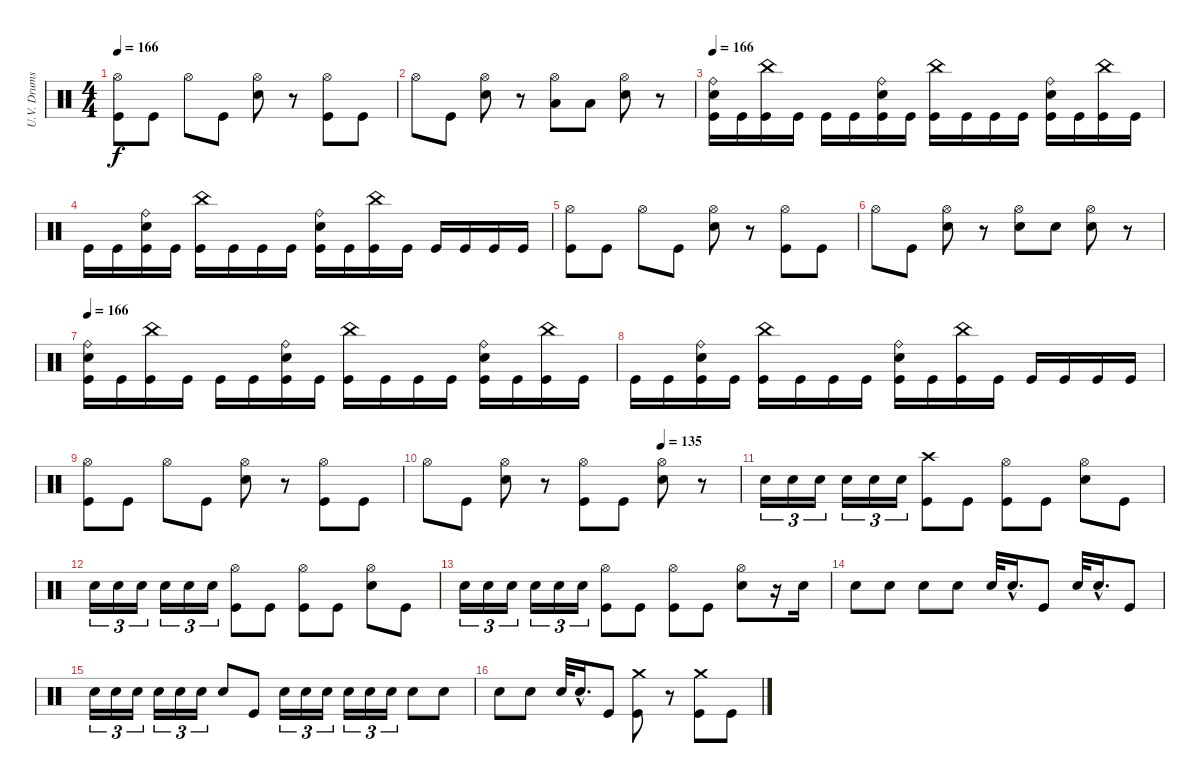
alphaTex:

\track ("U.V. Drums" "U.V. Drums") {instrument percussion}
\staff {score}
\articulation defaults
\ts (4 4)
\tempo 166
\clef neutral
\ks c
("Hi-Hat (open)" "Kick (hit)").8{dy f} "Kick (hit)".8 "Hi-Hat (open)".8 "Kick (hit)".8 ("Hi-Hat (open)" "Electric Snare (hit)").8 r.8 ("Hi-Hat (open)" "Kick (hit)").8 "Kick (hit)".8 |
"Hi-Hat (open)".8 "Kick (hit)".8 ("Hi-Hat (open)" "Electric Snare (hit)").8 r.8 ("Hi-Hat (open)" "Low Tom (hit)").8 "Low Tom (hit)".8 ("Hi-Hat (open)" "Electric Snare (hit)").8 r.8 |
\tempo 166
("Ride (bell)" "Electric Snare (hit)" "Kick (hit)").16 "Kick (hit)".16 ("China (hit)" "Kick (hit)").16 "Kick (hit)".16 "Kick (hit)".16 "Kick (hit)".16 ("Ride (bell)" "Electric Snare (hit)" "Kick (hit)").16 "Kick (hit)".16 ("China (hit)" "Kick (hit)").16 "Kick (hit)".16 "Kick (hit)".16 "Kick (hit)".16 ("Ride (bell)" "Electric Snare (hit)" "Kick (hit)").16 "Kick (hit)".16 ("China (hit)" "Kick (hit)").16 "Kick (hit)".16 |
"Kick (hit)".16 "Kick (hit)".16 ("Ride (bell)" "Electric Snare (hit)" "Kick (hit)").16 "Kick (hit)".16 ("China (hit)" "Kick (hit)").16 "Kick (hit)".16 "Kick (hit)".16 "Kick (hit)".16 ("Ride (bell)" "Electric Snare (hit)" "Kick (hit)").16 "Kick (hit)".16 ("China (hit)" "Kick (hit)").16 "Kick (hit)".16 "Kick (hit)".16 "Kick (hit)".16 "Kick (hit)".16 "Kick (hit)".16 |
("Hi-Hat (open)" "Kick (hit)").8 "Kick (hit)".8 "Hi-Hat (open)".8 "Kick (hit)".8 ("Hi-Hat (open)" "Electric Snare (hit)").8 r.8 ("Hi-Hat (open)" "Kick (hit)").8 "Kick (hit)".8 |
"Hi-Hat (open)".8 "Kick (hit)".8 ("Hi-Hat (open)" "Electric Snare (hit)").8 r.8 ("Hi-Hat (open)" "Electric Snare (hit)").8 "Electric Snare (hit)".8 ("Hi-Hat (open)" "Electric Snare (hit)").8 r.8 |
\tempo 166
("Ride (bell)" "Electric Snare (hit)" "Kick (hit)").16 "Kick (hit)".16 ("China (hit)" "Kick (hit)").16 "Kick (hit)".16 "Kick (hit)".16 "Kick (hit)".16 ("Ride (bell)" "Electric Snare (hit)" "Kick (hit)").16 "Kick (hit)".16 ("China (hit)" "Kick (hit)").16 "Kick (hit)".16 "Kick (hit)".16 "Kick (hit)".16 ("Ride (bell)" "Electric Snare (hit)" "Kick (hit)").16 "Kick (hit)".16 ("China (hit)" "Kick (hit)").16 "Kick (hit)".16 |
"Kick (hit)".16 "Kick (hit)".16 ("Ride (bell)" "Electric Snare (hit)" "Kick (hit)").16 "Kick (hit)".16 ("China (hit)" "Kick (hit)").16 "Kick (hit)".16 "Kick (hit)".16 "Kick (hit)".16 ("Ride (bell)" "Electric Snare (hit)" "Kick (hit)").16 "Kick (hit)".16 ("China (hit)" "Kick (hit)").16 "Kick (hit)".16 "Kick (hit)".16 "Kick (hit)".16 "Kick (hit)".16 "Kick (hit)".16 |
("Hi-Hat (open)" "Kick (hit)").8 "Kick (hit)".8 "Hi-Hat (open)".8 "Kick (hit)".8 ("Hi-Hat (open)" "Electric Snare (hit)").8 r.8 ("Hi-Hat (open)" "Kick (hit)").8 "Kick (hit)".8 |
\tempo (135 0.75)
"Hi-Hat (open)".8 "Kick (hit)".8 ("Hi-Hat (open)" "Electric Snare (hit)").8 r.8 ("Hi-Hat (open)" "Kick (hit)").8 "Kick (hit)".8 ("Hi-Hat (open)" "Electric Snare (hit)").8 r.8 |
"Electric Snare (hit)".16{tu (3 2)} "Electric Snare (hit)".16{tu (3 2)} "Electric Snare (hit)".16{tu (3 2)} "Electric Snare (hit)".16{tu (3 2)} "Electric Snare (hit)".16{tu (3 2)} "Electric Snare (hit)".16{tu (3 2)} ("Crash high (hit)" "Kick (hit)").8 "Kick (hit)".8 ("Hi-Hat (open)" "Kick (hit)").8 "Kick (hit)".8 ("Hi-Hat (open)" "Electric Snare (hit)").8 "Kick (hit)".8 |
"Electric Snare (hit)".16{tu (3 2)} "Electric Snare (hit)".16{tu (3 2)} "Electric Snare (hit)".16{tu (3 2)} "Electric Snare (hit)".16{tu (3 2)} "Electric Snare (hit)".16{tu (3 2)} "Electric Snare (hit)".16{tu (3 2)} ("Hi-Hat (open)" "Kick (hit)").8 "Kick (hit)".8 ("Hi-Hat (open)" "Kick (hit)").8 "Kick (hit)".8 ("Hi-Hat (open)" "Electric Snare (hit)").8 "Kick (hit)".8 |
"Electric Snare (hit)".16{tu (3 2)} "Electric Snare (hit)".16{tu (3 2)} "Electric Snare (hit)".16{tu (3 2)} "Electric Snare (hit)".16{tu (3 2)} "Electric Snare (hit)".16{tu (3 2)} "Electric Snare (hit)".16{tu (3 2)} ("Hi-Hat (open)" "Kick (hit)").8 "Kick (hit)".8 ("Hi-Hat (open)" "Kick (hit)").8 "Kick (hit)".8 ("Hi-Hat (open)" "Electric Snare (hit)").8 r.16 "Electric Snare (hit)".16 |
"Electric Snare (hit)".8 "Electric Snare (hit)".8 "Electric Snare (hit)".8 "Electric Snare (hit)".8 "Electric Snare (hit)".32 "Electric Snare (hit)"{hac}.16{d} "Kick (hit)".8 "Electric Snare (hit)".32 "Electric Snare (hit)"{hac}.16{d} "Kick (hit)".8 |
"Electric Snare (hit)".16{tu (3 2)} "Electric Snare (hit)".16{tu (3 2)} "Electric Snare (hit)".16{tu (3 2)} "Electric Snare (hit)".16{tu (3 2)} "Electric Snare (hit)".16{tu (3 2)} "Electric Snare (hit)".16{tu (3 2)} "Electric Snare (hit)".8 "Kick (hit)".8 "Electric Snare (hit)".16{tu (3 2)} "Electric Snare (hit)".16{tu (3 2)} "Electric Snare (hit)".16{tu (3 2)} "Electric Snare (hit)".16{tu (3 2)} "Electric Snare (hit)".16{tu (3 2)} "Electric Snare (hit)".16{tu (3 2)} "Electric Snare (hit)".8 "Electric Snare (hit)".8 |
"Electric Snare (hit)".8 "Electric Snare (hit)".8 "Electric Snare (hit)".32 "Electric Snare (hit)"{hac}.16{d} "Kick (hit)".8 ("Crash medium (hit)" "Kick (hit)").8 r.8 ("Crash medium (hit)" "Kick (hit)").8 "Kick (hit)".8
